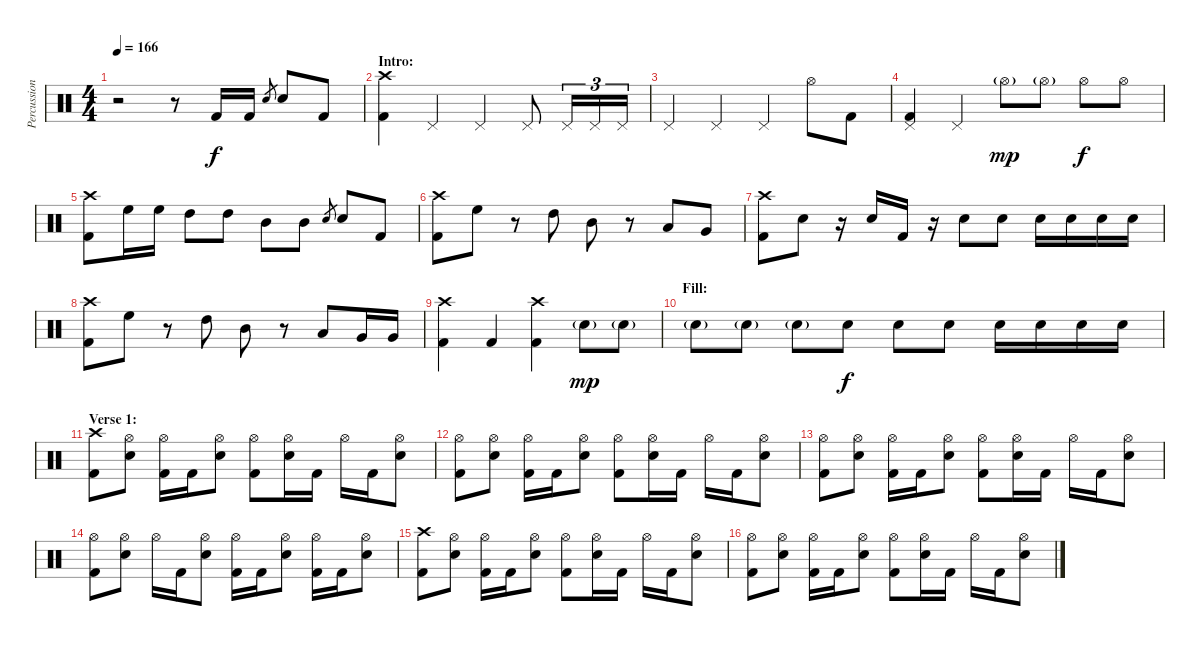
\track ("Percussion" "Percussion") {instrument percussion}
\staff {score}
\articulation defaults
\ts (4 4)
\tempo 166
\clef neutral
\ks c
r.2{dy f} r.8 "Kick (hit) 2".16 "Kick (hit) 2".16 "Electric Snare (hit)".8{gr} "Electric Snare (hit)".8 "Kick (hit) 2".8 |
\section ("" "Intro:")
("Crash high (hit)" "Kick (hit) 2").4 "Pedal Hi-Hat (hit)".4 "Pedal Hi-Hat (hit)".4 "Pedal Hi-Hat (hit)".8 "Pedal Hi-Hat (hit)".16{tu (3 2)} "Pedal Hi-Hat (hit)".16{tu (3 2)} "Pedal Hi-Hat (hit)".16{tu (3 2)} |
"Pedal Hi-Hat (hit)".4 "Pedal Hi-Hat (hit)".4 "Pedal Hi-Hat (hit)".4 "Hi-Hat (open)".8 "Kick (hit) 2".8 |
("Pedal Hi-Hat (hit)" "Kick (hit) 2").4 "Pedal Hi-Hat (hit)".4 "Hi-Hat (open)"{g}.8{dy mp} "Hi-Hat (open)"{g}.8 "Hi-Hat (open)".8{dy f} "Hi-Hat (open)".8 |
("Crash high (hit)" "Kick (hit) 2").8 "High Floor Tom (hit)".16 "High Floor Tom (hit)".16 "High Tom (hit)".8 "High Tom (hit)".8 "Mid Tom (hit)".8 "Mid Tom (hit)".8 "Electric Snare (hit)".8{gr} "Electric Snare (hit)".8 "Kick (hit) 2".8 |
("Crash high (hit)" "Kick (hit) 2").8 "High Floor Tom (hit)".8 r.8 "High Tom (hit)".8 "Mid Tom (hit)".8 r.8 "Low Tom (hit)".8 "Very Low Tom (hit)".8 |
("Crash high (hit)" "Kick (hit) 2").8 "Electric Snare (hit)".8 r.16 "Electric Snare (hit)".16 "Kick (hit) 2".16 r.16 "Electric Snare (hit)".8 "Electric Snare (hit)".8 "Electric Snare (hit)".16 "Electric Snare (hit)".16 "Electric Snare (hit)".16 "Electric Snare (hit)".16 |
("Crash high (hit)" "Kick (hit) 2").8 "High Floor Tom (hit)".8 r.8 "High Tom (hit)".8 "Mid Tom (hit)".8 r.8 "Low Tom (hit)".8 "Very Low Tom (hit)".16 "Very Low Tom (hit)".16 |
("Crash high (hit)" "Kick (hit) 2").4 "Kick (hit) 2".4 ("Crash high (hit)" "Kick (hit) 2").4 "Electric Snare (hit)"{g}.8{dy mp} "Electric Snare (hit)"{g}.8 |
\section ("" "Fill:")
"Electric Snare (hit)"{g}.8 "Electric Snare (hit)"{g}.8 "Electric Snare (hit)"{g}.8 "Electric Snare (hit)".8{dy f} "Electric Snare (hit)".8 "Electric Snare (hit)".8 "Electric Snare (hit)".16 "Electric Snare (hit)".16 "Electric Snare (hit)".16 "Electric Snare (hit)".16 |
\section ("" "Verse 1:")
("Crash high (hit)" "Kick (hit) 2").8 ("Hi-Hat (open)" "Electric Snare (hit)").8 ("Hi-Hat (open)" "Kick (hit) 2").16 "Kick (hit) 2".16 ("Hi-Hat (open)" "Electric Snare (hit)").8 ("Hi-Hat (open)" "Kick (hit) 2").8 ("Hi-Hat (open)" "Electric Snare (hit)").16 "Kick (hit) 2".16 "Hi-Hat (open)".16 "Kick (hit) 2".16 ("Hi-Hat (open)" "Electric Snare (hit)").8 |
("Hi-Hat (open)" "Kick (hit) 2").8 ("Hi-Hat (open)" "Electric Snare (hit)").8 ("Hi-Hat (open)" "Kick (hit) 2").16 "Kick (hit) 2".16 ("Hi-Hat (open)" "Electric Snare (hit)").8 ("Hi-Hat (open)" "Kick (hit) 2").8 ("Hi-Hat (open)" "Electric Snare (hit)").16 "Kick (hit) 2".16 "Hi-Hat (open)".16 "Kick (hit) 2".16 ("Hi-Hat (open)" "Electric Snare (hit)").8 |
("Hi-Hat (open)" "Kick (hit) 2").8 ("Hi-Hat (open)" "Electric Snare (hit)").8 ("Hi-Hat (open)" "Kick (hit) 2").16 "Kick (hit) 2".16 ("Hi-Hat (open)" "Electric Snare (hit)").8 ("Hi-Hat (open)" "Kick (hit) 2").8 ("Hi-Hat (open)" "Electric Snare (hit)").16 "Kick (hit) 2".16 "Hi-Hat (open)".16 "Kick (hit) 2".16 ("Hi-Hat (open)" "Electric Snare (hit)").8 |
("Hi-Hat (open)" "Kick (hit) 2").8 ("Hi-Hat (open)" "Electric Snare (hit)").8 "Hi-Hat (open)".16 "Kick (hit) 2".16 ("Hi-Hat (open)" "Electric Snare (hit)").8 ("Hi-Hat (open)" "Kick (hit) 2").16 "Kick (hit) 2".16 ("Hi-Hat (open)" "Electric Snare (hit)").8 ("Hi-Hat (open)" "Kick (hit) 2").16 "Kick (hit) 2".16 ("Hi-Hat (open)" "Electric Snare (hit)").8 |
("Crash high (hit)" "Kick (hit) 2").8 ("Hi-Hat (open)" "Electric Snare (hit)").8 ("Hi-Hat (open)" "Kick (hit) 2").16 "Kick (hit) 2".16 ("Hi-Hat (open)" "Electric Snare (hit)").8 ("Hi-Hat (open)" "Kick (hit) 2").8 ("Hi-Hat (open)" "Electric Snare (hit)").16 "Kick (hit) 2".16 "Hi-Hat (open)".16 "Kick (hit) 2".16 ("Hi-Hat (open)" "Electric Snare (hit)").8 |
("Hi-Hat (open)" "Kick (hit) 2").8 ("Hi-Hat (open)" "Electric Snare (hit)").8 ("Hi-Hat (open)" "Kick (hit) 2").16 "Kick (hit) 2".16 ("Hi-Hat (open)" "Electric Snare (hit)").8 ("Hi-Hat (open)" "Kick (hit) 2").8 ("Hi-Hat (open)" "Electric Snare (hit)").16 "Kick (hit) 2".16 "Hi-Hat (open)".16 "Kick (hit) 2".16 ("Hi-Hat (open)" "Electric Snare (hit)").8
